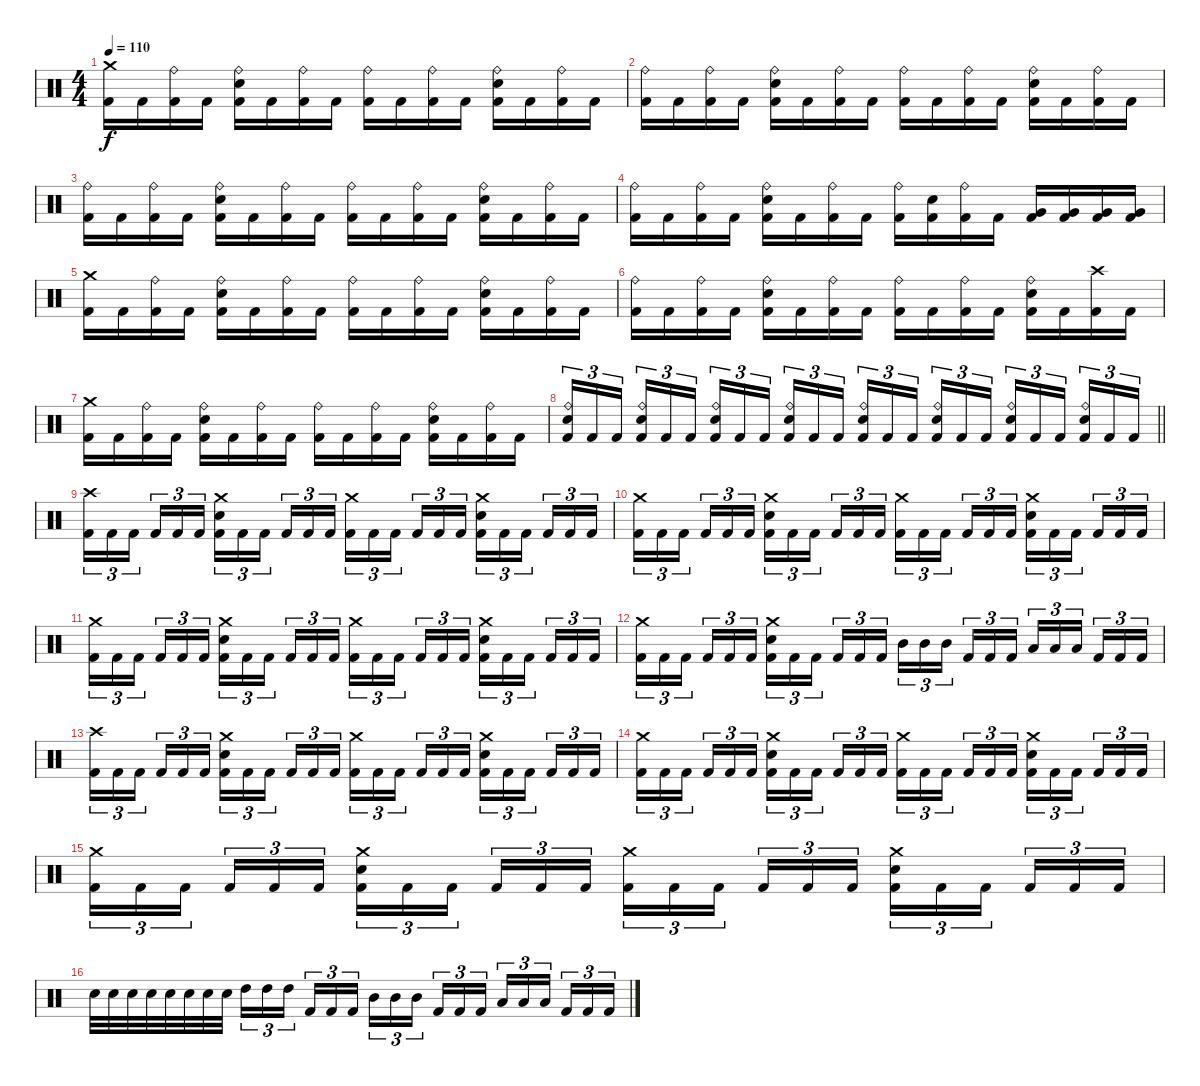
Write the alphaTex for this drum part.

\track "" {instrument percussion}
\staff {score}
\articulation defaults
\ts (4 4)
\tempo 110
\clef neutral
\ks c
("Crash medium (hit)" "Kick (hit) 2").16{dy f} "Kick (hit) 2".16 ("Ride (bell)" "Kick (hit) 2").16 "Kick (hit) 2".16 ("Ride (bell)" "Electric Snare (hit)" "Kick (hit) 2").16 "Kick (hit) 2".16 ("Ride (bell)" "Kick (hit) 2").16 "Kick (hit) 2".16 ("Ride (bell)" "Kick (hit) 2").16 "Kick (hit) 2".16 ("Ride (bell)" "Kick (hit) 2").16 "Kick (hit) 2".16 ("Ride (bell)" "Electric Snare (hit)" "Kick (hit) 2").16 "Kick (hit) 2".16 ("Ride (bell)" "Kick (hit) 2").16 "Kick (hit) 2".16 |
("Ride (bell)" "Kick (hit) 2").16 "Kick (hit) 2".16 ("Ride (bell)" "Kick (hit) 2").16 "Kick (hit) 2".16 ("Ride (bell)" "Electric Snare (hit)" "Kick (hit) 2").16 "Kick (hit) 2".16 ("Ride (bell)" "Kick (hit) 2").16 "Kick (hit) 2".16 ("Ride (bell)" "Kick (hit) 2").16 "Kick (hit) 2".16 ("Ride (bell)" "Kick (hit) 2").16 "Kick (hit) 2".16 ("Ride (bell)" "Electric Snare (hit)" "Kick (hit) 2").16 "Kick (hit) 2".16 ("Ride (bell)" "Kick (hit) 2").16 "Kick (hit) 2".16 |
("Ride (bell)" "Kick (hit) 2").16 "Kick (hit) 2".16 ("Ride (bell)" "Kick (hit) 2").16 "Kick (hit) 2".16 ("Ride (bell)" "Electric Snare (hit)" "Kick (hit) 2").16 "Kick (hit) 2".16 ("Ride (bell)" "Kick (hit) 2").16 "Kick (hit) 2".16 ("Ride (bell)" "Kick (hit) 2").16 "Kick (hit) 2".16 ("Ride (bell)" "Kick (hit) 2").16 "Kick (hit) 2".16 ("Ride (bell)" "Electric Snare (hit)" "Kick (hit) 2").16 "Kick (hit) 2".16 ("Ride (bell)" "Kick (hit) 2").16 "Kick (hit) 2".16 |
("Ride (bell)" "Kick (hit) 2").16 "Kick (hit) 2".16 ("Ride (bell)" "Kick (hit) 2").16 "Kick (hit) 2".16 ("Ride (bell)" "Electric Snare (hit)" "Kick (hit) 2").16 "Kick (hit) 2".16 ("Ride (bell)" "Kick (hit) 2").16 "Kick (hit) 2".16 ("Ride (bell)" "Kick (hit) 2").16 ("Electric Snare (hit)" "Kick (hit) 2").16 ("Ride (bell)" "Kick (hit) 2").16 "Kick (hit) 2".16 ("Very Low Tom (hit)" "Kick (hit) 2").16 ("Very Low Tom (hit)" "Kick (hit) 2").16 ("Very Low Tom (hit)" "Kick (hit) 2").16 ("Very Low Tom (hit)" "Kick (hit) 2").16 |
("Crash medium (hit)" "Kick (hit) 2").16 "Kick (hit) 2".16 ("Ride (bell)" "Kick (hit) 2").16 "Kick (hit) 2".16 ("Ride (bell)" "Electric Snare (hit)" "Kick (hit) 2").16 "Kick (hit) 2".16 ("Ride (bell)" "Kick (hit) 2").16 "Kick (hit) 2".16 ("Ride (bell)" "Kick (hit) 2").16 "Kick (hit) 2".16 ("Ride (bell)" "Kick (hit) 2").16 "Kick (hit) 2".16 ("Ride (bell)" "Electric Snare (hit)" "Kick (hit) 2").16 "Kick (hit) 2".16 ("Ride (bell)" "Kick (hit) 2").16 "Kick (hit) 2".16 |
("Ride (bell)" "Kick (hit) 2").16 "Kick (hit) 2".16 ("Ride (bell)" "Kick (hit) 2").16 "Kick (hit) 2".16 ("Ride (bell)" "Electric Snare (hit)" "Kick (hit) 2").16 "Kick (hit) 2".16 ("Ride (bell)" "Kick (hit) 2").16 "Kick (hit) 2".16 ("Ride (bell)" "Kick (hit) 2").16 "Kick (hit) 2".16 ("Ride (bell)" "Kick (hit) 2").16 "Kick (hit) 2".16 ("Ride (bell)" "Electric Snare (hit)" "Kick (hit) 2").16 "Kick (hit) 2".16 ("Crash high (hit)" "Kick (hit) 2").16 "Kick (hit) 2".16 |
("Crash medium (hit)" "Kick (hit) 2").16 "Kick (hit) 2".16 ("Ride (bell)" "Kick (hit) 2").16 "Kick (hit) 2".16 ("Ride (bell)" "Electric Snare (hit)" "Kick (hit) 2").16 "Kick (hit) 2".16 ("Ride (bell)" "Kick (hit) 2").16 "Kick (hit) 2".16 ("Ride (bell)" "Kick (hit) 2").16 "Kick (hit) 2".16 ("Ride (bell)" "Kick (hit) 2").16 "Kick (hit) 2".16 ("Ride (bell)" "Electric Snare (hit)" "Kick (hit) 2").16 "Kick (hit) 2".16 ("Ride (bell)" "Kick (hit) 2").16 "Kick (hit) 2".16 |
\barLineRight lightlight
("Ride (bell)" "Electric Snare (hit)" "Kick (hit) 2").16{tu (3 2)} "Kick (hit) 2".16{tu (3 2)} "Kick (hit) 2".16{tu (3 2) beam splitsecondary} ("Ride (bell)" "Electric Snare (hit)" "Kick (hit) 2").16{tu (3 2)} "Kick (hit) 2".16{tu (3 2)} "Kick (hit) 2".16{tu (3 2)} ("Ride (bell)" "Electric Snare (hit)" "Kick (hit) 2").16{tu (3 2)} "Kick (hit) 2".16{tu (3 2)} "Kick (hit) 2".16{tu (3 2) beam splitsecondary} ("Ride (bell)" "Electric Snare (hit)" "Kick (hit) 2").16{tu (3 2)} "Kick (hit) 2".16{tu (3 2)} "Kick (hit) 2".16{tu (3 2)} ("Ride (bell)" "Electric Snare (hit)" "Kick (hit) 2").16{tu (3 2)} "Kick (hit) 2".16{tu (3 2)} "Kick (hit) 2".16{tu (3 2) beam splitsecondary} ("Ride (bell)" "Electric Snare (hit)" "Kick (hit) 2").16{tu (3 2)} "Kick (hit) 2".16{tu (3 2)} "Kick (hit) 2".16{tu (3 2)} ("Ride (bell)" "Electric Snare (hit)" "Kick (hit) 2").16{tu (3 2)} "Kick (hit) 2".16{tu (3 2)} "Kick (hit) 2".16{tu (3 2) beam splitsecondary} ("Ride (bell)" "Electric Snare (hit)" "Kick (hit) 2").16{tu (3 2)} "Kick (hit) 2".16{tu (3 2)} "Kick (hit) 2".16{tu (3 2)} |
("Crash high (hit)" "Kick (hit) 2").16{tu (3 2)} "Kick (hit) 2".16{tu (3 2)} "Kick (hit) 2".16{tu (3 2) beam splitsecondary} "Kick (hit) 2".16{tu (3 2)} "Kick (hit) 2".16{tu (3 2)} "Kick (hit) 2".16{tu (3 2)} ("Crash medium (hit)" "Electric Snare (hit)" "Kick (hit) 2").16{tu (3 2)} "Kick (hit) 2".16{tu (3 2)} "Kick (hit) 2".16{tu (3 2) beam splitsecondary} "Kick (hit) 2".16{tu (3 2)} "Kick (hit) 2".16{tu (3 2)} "Kick (hit) 2".16{tu (3 2)} ("Crash medium (hit)" "Kick (hit) 2").16{tu (3 2)} "Kick (hit) 2".16{tu (3 2)} "Kick (hit) 2".16{tu (3 2) beam splitsecondary} "Kick (hit) 2".16{tu (3 2)} "Kick (hit) 2".16{tu (3 2)} "Kick (hit) 2".16{tu (3 2)} ("Crash medium (hit)" "Electric Snare (hit)" "Kick (hit) 2").16{tu (3 2)} "Kick (hit) 2".16{tu (3 2)} "Kick (hit) 2".16{tu (3 2) beam splitsecondary} "Kick (hit) 2".16{tu (3 2)} "Kick (hit) 2".16{tu (3 2)} "Kick (hit) 2".16{tu (3 2)} |
("Crash medium (hit)" "Kick (hit) 2").16{tu (3 2)} "Kick (hit) 2".16{tu (3 2)} "Kick (hit) 2".16{tu (3 2) beam splitsecondary} "Kick (hit) 2".16{tu (3 2)} "Kick (hit) 2".16{tu (3 2)} "Kick (hit) 2".16{tu (3 2)} ("Crash medium (hit)" "Electric Snare (hit)" "Kick (hit) 2").16{tu (3 2)} "Kick (hit) 2".16{tu (3 2)} "Kick (hit) 2".16{tu (3 2) beam splitsecondary} "Kick (hit) 2".16{tu (3 2)} "Kick (hit) 2".16{tu (3 2)} "Kick (hit) 2".16{tu (3 2)} ("Crash medium (hit)" "Kick (hit) 2").16{tu (3 2)} "Kick (hit) 2".16{tu (3 2)} "Kick (hit) 2".16{tu (3 2) beam splitsecondary} "Kick (hit) 2".16{tu (3 2)} "Kick (hit) 2".16{tu (3 2)} "Kick (hit) 2".16{tu (3 2)} ("Crash medium (hit)" "Electric Snare (hit)" "Kick (hit) 2").16{tu (3 2)} "Kick (hit) 2".16{tu (3 2)} "Kick (hit) 2".16{tu (3 2) beam splitsecondary} "Kick (hit) 2".16{tu (3 2)} "Kick (hit) 2".16{tu (3 2)} "Kick (hit) 2".16{tu (3 2)} |
("Crash medium (hit)" "Kick (hit) 2").16{tu (3 2)} "Kick (hit) 2".16{tu (3 2)} "Kick (hit) 2".16{tu (3 2) beam splitsecondary} "Kick (hit) 2".16{tu (3 2)} "Kick (hit) 2".16{tu (3 2)} "Kick (hit) 2".16{tu (3 2)} ("Crash medium (hit)" "Electric Snare (hit)" "Kick (hit) 2").16{tu (3 2)} "Kick (hit) 2".16{tu (3 2)} "Kick (hit) 2".16{tu (3 2) beam splitsecondary} "Kick (hit) 2".16{tu (3 2)} "Kick (hit) 2".16{tu (3 2)} "Kick (hit) 2".16{tu (3 2)} ("Crash medium (hit)" "Kick (hit) 2").16{tu (3 2)} "Kick (hit) 2".16{tu (3 2)} "Kick (hit) 2".16{tu (3 2) beam splitsecondary} "Kick (hit) 2".16{tu (3 2)} "Kick (hit) 2".16{tu (3 2)} "Kick (hit) 2".16{tu (3 2)} ("Crash medium (hit)" "Electric Snare (hit)" "Kick (hit) 2").16{tu (3 2)} "Kick (hit) 2".16{tu (3 2)} "Kick (hit) 2".16{tu (3 2) beam splitsecondary} "Kick (hit) 2".16{tu (3 2)} "Kick (hit) 2".16{tu (3 2)} "Kick (hit) 2".16{tu (3 2)} |
("Crash medium (hit)" "Kick (hit) 2").16{tu (3 2)} "Kick (hit) 2".16{tu (3 2)} "Kick (hit) 2".16{tu (3 2) beam splitsecondary} "Kick (hit) 2".16{tu (3 2)} "Kick (hit) 2".16{tu (3 2)} "Kick (hit) 2".16{tu (3 2)} ("Crash medium (hit)" "Electric Snare (hit)" "Kick (hit) 2").16{tu (3 2)} "Kick (hit) 2".16{tu (3 2)} "Kick (hit) 2".16{tu (3 2) beam splitsecondary} "Kick (hit) 2".16{tu (3 2)} "Kick (hit) 2".16{tu (3 2)} "Kick (hit) 2".16{tu (3 2)} "Mid Tom (hit)".16{tu (3 2)} "Mid Tom (hit)".16{tu (3 2)} "Mid Tom (hit)".16{tu (3 2) beam splitsecondary} "Kick (hit) 2".16{tu (3 2)} "Kick (hit) 2".16{tu (3 2)} "Kick (hit) 2".16{tu (3 2)} "Low Tom (hit)".16{tu (3 2)} "Low Tom (hit)".16{tu (3 2)} "Low Tom (hit)".16{tu (3 2) beam splitsecondary} "Kick (hit) 2".16{tu (3 2)} "Kick (hit) 2".16{tu (3 2)} "Kick (hit) 2".16{tu (3 2)} |
("Crash high (hit)" "Kick (hit) 2").16{tu (3 2)} "Kick (hit) 2".16{tu (3 2)} "Kick (hit) 2".16{tu (3 2) beam splitsecondary} "Kick (hit) 2".16{tu (3 2)} "Kick (hit) 2".16{tu (3 2)} "Kick (hit) 2".16{tu (3 2)} ("Crash medium (hit)" "Electric Snare (hit)" "Kick (hit) 2").16{tu (3 2)} "Kick (hit) 2".16{tu (3 2)} "Kick (hit) 2".16{tu (3 2) beam splitsecondary} "Kick (hit) 2".16{tu (3 2)} "Kick (hit) 2".16{tu (3 2)} "Kick (hit) 2".16{tu (3 2)} ("Crash medium (hit)" "Kick (hit) 2").16{tu (3 2)} "Kick (hit) 2".16{tu (3 2)} "Kick (hit) 2".16{tu (3 2) beam splitsecondary} "Kick (hit) 2".16{tu (3 2)} "Kick (hit) 2".16{tu (3 2)} "Kick (hit) 2".16{tu (3 2)} ("Crash medium (hit)" "Electric Snare (hit)" "Kick (hit) 2").16{tu (3 2)} "Kick (hit) 2".16{tu (3 2)} "Kick (hit) 2".16{tu (3 2) beam splitsecondary} "Kick (hit) 2".16{tu (3 2)} "Kick (hit) 2".16{tu (3 2)} "Kick (hit) 2".16{tu (3 2)} |
("Crash medium (hit)" "Kick (hit) 2").16{tu (3 2)} "Kick (hit) 2".16{tu (3 2)} "Kick (hit) 2".16{tu (3 2) beam splitsecondary} "Kick (hit) 2".16{tu (3 2)} "Kick (hit) 2".16{tu (3 2)} "Kick (hit) 2".16{tu (3 2)} ("Crash medium (hit)" "Electric Snare (hit)" "Kick (hit) 2").16{tu (3 2)} "Kick (hit) 2".16{tu (3 2)} "Kick (hit) 2".16{tu (3 2) beam splitsecondary} "Kick (hit) 2".16{tu (3 2)} "Kick (hit) 2".16{tu (3 2)} "Kick (hit) 2".16{tu (3 2)} ("Crash medium (hit)" "Kick (hit) 2").16{tu (3 2)} "Kick (hit) 2".16{tu (3 2)} "Kick (hit) 2".16{tu (3 2) beam splitsecondary} "Kick (hit) 2".16{tu (3 2)} "Kick (hit) 2".16{tu (3 2)} "Kick (hit) 2".16{tu (3 2)} ("Crash medium (hit)" "Electric Snare (hit)" "Kick (hit) 2").16{tu (3 2)} "Kick (hit) 2".16{tu (3 2)} "Kick (hit) 2".16{tu (3 2) beam splitsecondary} "Kick (hit) 2".16{tu (3 2)} "Kick (hit) 2".16{tu (3 2)} "Kick (hit) 2".16{tu (3 2)} |
("Crash medium (hit)" "Kick (hit) 2").16{tu (3 2)} "Kick (hit) 2".16{tu (3 2)} "Kick (hit) 2".16{tu (3 2) beam splitsecondary} "Kick (hit) 2".16{tu (3 2)} "Kick (hit) 2".16{tu (3 2)} "Kick (hit) 2".16{tu (3 2)} ("Crash medium (hit)" "Electric Snare (hit)" "Kick (hit) 2").16{tu (3 2)} "Kick (hit) 2".16{tu (3 2)} "Kick (hit) 2".16{tu (3 2) beam splitsecondary} "Kick (hit) 2".16{tu (3 2)} "Kick (hit) 2".16{tu (3 2)} "Kick (hit) 2".16{tu (3 2)} ("Crash medium (hit)" "Kick (hit) 2").16{tu (3 2)} "Kick (hit) 2".16{tu (3 2)} "Kick (hit) 2".16{tu (3 2) beam splitsecondary} "Kick (hit) 2".16{tu (3 2)} "Kick (hit) 2".16{tu (3 2)} "Kick (hit) 2".16{tu (3 2)} ("Crash medium (hit)" "Electric Snare (hit)" "Kick (hit) 2").16{tu (3 2)} "Kick (hit) 2".16{tu (3 2)} "Kick (hit) 2".16{tu (3 2) beam splitsecondary} "Kick (hit) 2".16{tu (3 2)} "Kick (hit) 2".16{tu (3 2)} "Kick (hit) 2".16{tu (3 2)} |
"Electric Snare (hit)".32 "Electric Snare (hit)".32 "Electric Snare (hit)".32 "Electric Snare (hit)".32 "Electric Snare (hit)".32 "Electric Snare (hit)".32 "Electric Snare (hit)".32 "Electric Snare (hit)".32 "High Tom (hit)".16{tu (3 2)} "High Tom (hit)".16{tu (3 2)} "High Tom (hit)".16{tu (3 2) beam splitsecondary} "Kick (hit) 2".16{tu (3 2)} "Kick (hit) 2".16{tu (3 2)} "Kick (hit) 2".16{tu (3 2)} "Mid Tom (hit)".16{tu (3 2)} "Mid Tom (hit)".16{tu (3 2)} "Mid Tom (hit)".16{tu (3 2) beam splitsecondary} "Kick (hit) 2".16{tu (3 2)} "Kick (hit) 2".16{tu (3 2)} "Kick (hit) 2".16{tu (3 2)} "Low Tom (hit)".16{tu (3 2)} "Low Tom (hit)".16{tu (3 2)} "Low Tom (hit)".16{tu (3 2) beam splitsecondary} "Kick (hit) 2".16{tu (3 2)} "Kick (hit) 2".16{tu (3 2)} "Kick (hit) 2".16{tu (3 2)}
